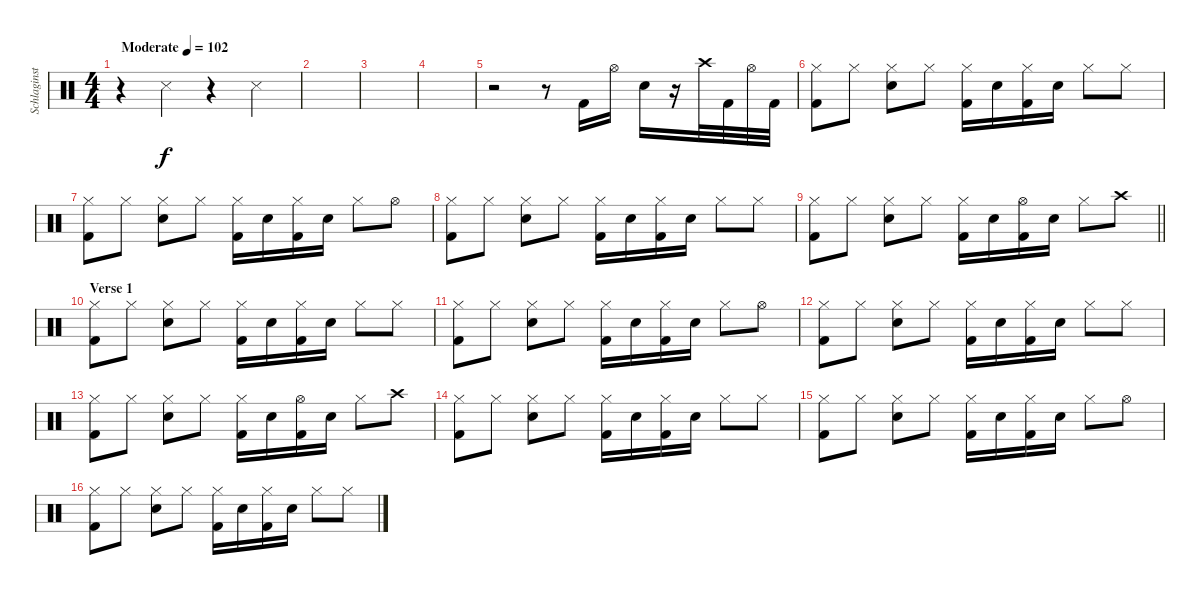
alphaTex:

\track ("Schlaginstrumente - Auswahl" "Schlaginst") {instrument percussion}
\staff {score}
\articulation defaults
\ts (4 4)
\tempo (102 "Moderate")
\clef neutral
\ks c
r.4{dy f} "Snare (side stick) 3".4 r.4 "Snare (side stick) 3".4 |
|
|
|
r.2 r.8 "Kick (hit) 2".16 "Hi-Hat (open)".16 "Electric Snare (hit)".16 r.16 "Crash high (hit)".32 "Kick (hit) 2".32 "Hi-Hat (open)".32 "Kick (hit) 2".32 |
("Hi-Hat (closed)" "Kick (hit) 2").8 "Hi-Hat (closed)".8 ("Hi-Hat (closed)" "Electric Snare (hit)").8 "Hi-Hat (closed)".8 ("Hi-Hat (closed)" "Kick (hit) 2").16 "Electric Snare (hit)".16 ("Hi-Hat (closed)" "Kick (hit) 2").16 "Electric Snare (hit)".16 "Hi-Hat (closed)".8 "Hi-Hat (closed)".8 |
("Hi-Hat (closed)" "Kick (hit) 2").8 "Hi-Hat (closed)".8 ("Hi-Hat (closed)" "Electric Snare (hit)").8 "Hi-Hat (closed)".8 ("Hi-Hat (closed)" "Kick (hit) 2").16 "Electric Snare (hit)".16 ("Hi-Hat (closed)" "Kick (hit) 2").16 "Electric Snare (hit)".16 "Hi-Hat (closed)".8 "Hi-Hat (open)".8 |
("Hi-Hat (closed)" "Kick (hit) 2").8 "Hi-Hat (closed)".8 ("Hi-Hat (closed)" "Electric Snare (hit)").8 "Hi-Hat (closed)".8 ("Hi-Hat (closed)" "Kick (hit) 2").16 "Electric Snare (hit)".16 ("Hi-Hat (closed)" "Kick (hit) 2").16 "Electric Snare (hit)".16 "Hi-Hat (closed)".8 "Hi-Hat (closed)".8 |
\barLineRight lightlight
("Hi-Hat (closed)" "Kick (hit) 2").8 "Hi-Hat (closed)".8 ("Hi-Hat (closed)" "Electric Snare (hit)").8 "Hi-Hat (closed)".8 ("Hi-Hat (closed)" "Kick (hit) 2").16 "Electric Snare (hit)".16 ("Hi-Hat (open)" "Kick (hit) 2").16 "Electric Snare (hit)".16 "Hi-Hat (closed)".8 "Crash high (hit)".8 |
\section ("" "Verse 1")
("Hi-Hat (closed)" "Kick (hit) 2").8 "Hi-Hat (closed)".8 ("Hi-Hat (closed)" "Electric Snare (hit)").8 "Hi-Hat (closed)".8 ("Hi-Hat (closed)" "Kick (hit) 2").16 "Electric Snare (hit)".16 ("Hi-Hat (closed)" "Kick (hit) 2").16 "Electric Snare (hit)".16 "Hi-Hat (closed)".8 "Hi-Hat (closed)".8 |
("Hi-Hat (closed)" "Kick (hit) 2").8 "Hi-Hat (closed)".8 ("Hi-Hat (closed)" "Electric Snare (hit)").8 "Hi-Hat (closed)".8 ("Hi-Hat (closed)" "Kick (hit) 2").16 "Electric Snare (hit)".16 ("Hi-Hat (closed)" "Kick (hit) 2").16 "Electric Snare (hit)".16 "Hi-Hat (closed)".8 "Hi-Hat (open)".8 |
("Hi-Hat (closed)" "Kick (hit) 2").8 "Hi-Hat (closed)".8 ("Hi-Hat (closed)" "Electric Snare (hit)").8 "Hi-Hat (closed)".8 ("Hi-Hat (closed)" "Kick (hit) 2").16 "Electric Snare (hit)".16 ("Hi-Hat (closed)" "Kick (hit) 2").16 "Electric Snare (hit)".16 "Hi-Hat (closed)".8 "Hi-Hat (closed)".8 |
("Hi-Hat (closed)" "Kick (hit) 2").8 "Hi-Hat (closed)".8 ("Hi-Hat (closed)" "Electric Snare (hit)").8 "Hi-Hat (closed)".8 ("Hi-Hat (closed)" "Kick (hit) 2").16 "Electric Snare (hit)".16 ("Hi-Hat (open)" "Kick (hit) 2").16 "Electric Snare (hit)".16 "Hi-Hat (closed)".8 "Crash high (hit)".8 |
("Hi-Hat (closed)" "Kick (hit) 2").8 "Hi-Hat (closed)".8 ("Hi-Hat (closed)" "Electric Snare (hit)").8 "Hi-Hat (closed)".8 ("Hi-Hat (closed)" "Kick (hit) 2").16 "Electric Snare (hit)".16 ("Hi-Hat (closed)" "Kick (hit) 2").16 "Electric Snare (hit)".16 "Hi-Hat (closed)".8 "Hi-Hat (closed)".8 |
("Hi-Hat (closed)" "Kick (hit) 2").8 "Hi-Hat (closed)".8 ("Hi-Hat (closed)" "Electric Snare (hit)").8 "Hi-Hat (closed)".8 ("Hi-Hat (closed)" "Kick (hit) 2").16 "Electric Snare (hit)".16 ("Hi-Hat (closed)" "Kick (hit) 2").16 "Electric Snare (hit)".16 "Hi-Hat (closed)".8 "Hi-Hat (open)".8 |
("Hi-Hat (closed)" "Kick (hit) 2").8 "Hi-Hat (closed)".8 ("Hi-Hat (closed)" "Electric Snare (hit)").8 "Hi-Hat (closed)".8 ("Hi-Hat (closed)" "Kick (hit) 2").16 "Electric Snare (hit)".16 ("Hi-Hat (closed)" "Kick (hit) 2").16 "Electric Snare (hit)".16 "Hi-Hat (closed)".8 "Hi-Hat (closed)".8
